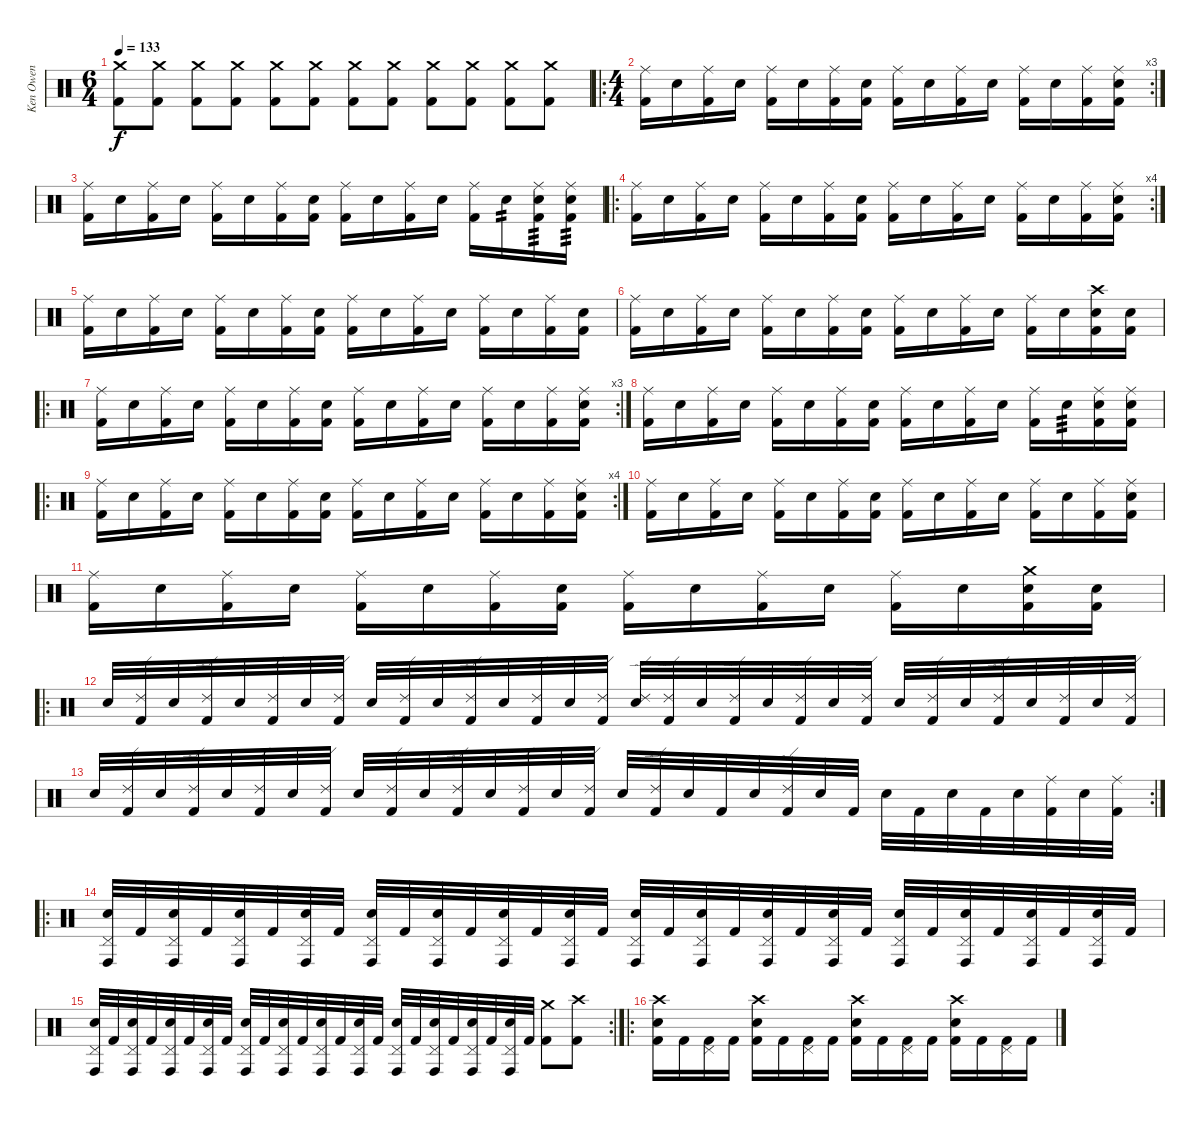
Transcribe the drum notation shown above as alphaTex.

\track ("Ken Owen" "Ken Owen") {instrument percussion}
\staff {score}
\articulation defaults
\ts (6 4)
\tempo 133
\clef neutral
\ks c
("Crash medium (hit)" "Kick (hit) 2").8{dy f} ("Crash medium (hit)" "Kick (hit) 2").8 ("Crash medium (hit)" "Kick (hit) 2").8 ("Crash medium (hit)" "Kick (hit) 2").8 ("Crash medium (hit)" "Kick (hit) 2").8 ("Crash medium (hit)" "Kick (hit) 2").8 ("Crash medium (hit)" "Kick (hit) 2").8 ("Crash medium (hit)" "Kick (hit) 2").8 ("Crash medium (hit)" "Kick (hit) 2").8 ("Crash medium (hit)" "Kick (hit) 2").8 ("Crash medium (hit)" "Kick (hit) 2").8 ("Crash medium (hit)" "Kick (hit) 2").8 |
\ro
\rc 3
\ts (4 4)
("Ride (middle)" "Kick (hit) 2").16 "Electric Snare (hit)".16 ("Ride (middle)" "Kick (hit) 2").16 "Electric Snare (hit)".16 ("Ride (middle)" "Kick (hit) 2").16 "Electric Snare (hit)".16 ("Ride (middle)" "Kick (hit) 2").16 ("Electric Snare (hit)" "Kick (hit) 2").16 ("Ride (middle)" "Kick (hit) 2").16 "Electric Snare (hit)".16 ("Ride (middle)" "Kick (hit) 2").16 "Electric Snare (hit)".16 ("Ride (middle)" "Kick (hit) 2").16 "Electric Snare (hit)".16 ("Ride (middle)" "Kick (hit) 2").16 ("Ride (middle)" "Electric Snare (hit)" "Kick (hit) 2").16 |
("Ride (middle)" "Kick (hit) 2").16 "Electric Snare (hit)".16 ("Ride (middle)" "Kick (hit) 2").16 "Electric Snare (hit)".16 ("Ride (middle)" "Kick (hit) 2").16 "Electric Snare (hit)".16 ("Ride (middle)" "Kick (hit) 2").16 ("Electric Snare (hit)" "Kick (hit) 2").16 ("Ride (middle)" "Kick (hit) 2").16 "Electric Snare (hit)".16 ("Ride (middle)" "Kick (hit) 2").16 "Electric Snare (hit)".16 ("Ride (middle)" "Kick (hit) 2").16 "Electric Snare (hit)".16{tp 2} ("Ride (middle)" "Electric Snare (hit)" "Kick (hit) 2").16{tp 3} ("Ride (middle)" "Electric Snare (hit)" "Kick (hit) 2").16{tp 3} |
\ro
\rc 4
("Ride (middle)" "Kick (hit) 2").16 "Electric Snare (hit)".16 ("Ride (middle)" "Kick (hit) 2").16 "Electric Snare (hit)".16 ("Ride (middle)" "Kick (hit) 2").16 "Electric Snare (hit)".16 ("Ride (middle)" "Kick (hit) 2").16 ("Electric Snare (hit)" "Kick (hit) 2").16 ("Ride (middle)" "Kick (hit) 2").16 "Electric Snare (hit)".16 ("Ride (middle)" "Kick (hit) 2").16 "Electric Snare (hit)".16 ("Ride (middle)" "Kick (hit) 2").16 "Electric Snare (hit)".16 ("Ride (middle)" "Kick (hit) 2").16 ("Ride (middle)" "Electric Snare (hit)" "Kick (hit) 2").16 |
("Ride (middle)" "Kick (hit) 2").16 "Electric Snare (hit)".16 ("Ride (middle)" "Kick (hit) 2").16 "Electric Snare (hit)".16 ("Ride (middle)" "Kick (hit) 2").16 "Electric Snare (hit)".16 ("Ride (middle)" "Kick (hit) 2").16 ("Electric Snare (hit)" "Kick (hit) 2").16 ("Ride (middle)" "Kick (hit) 2").16 "Electric Snare (hit)".16 ("Ride (middle)" "Kick (hit) 2").16 "Electric Snare (hit)".16 ("Ride (middle)" "Kick (hit) 2").16 "Electric Snare (hit)".16 ("Ride (middle)" "Kick (hit) 2").16 ("Electric Snare (hit)" "Kick (hit) 2").16 |
("Ride (middle)" "Kick (hit) 2").16 "Electric Snare (hit)".16 ("Ride (middle)" "Kick (hit) 2").16 "Electric Snare (hit)".16 ("Ride (middle)" "Kick (hit) 2").16 "Electric Snare (hit)".16 ("Ride (middle)" "Kick (hit) 2").16 ("Electric Snare (hit)" "Kick (hit) 2").16 ("Ride (middle)" "Kick (hit) 2").16 "Electric Snare (hit)".16 ("Ride (middle)" "Kick (hit) 2").16 "Electric Snare (hit)".16 ("Ride (middle)" "Kick (hit) 2").16 "Electric Snare (hit)".16 ("Crash high (hit)" "Electric Snare (hit)" "Kick (hit) 2").16 ("Electric Snare (hit)" "Kick (hit) 2").16 |
\ro
\rc 3
("Ride (middle)" "Kick (hit) 2").16 "Electric Snare (hit)".16 ("Ride (middle)" "Kick (hit) 2").16 "Electric Snare (hit)".16 ("Ride (middle)" "Kick (hit) 2").16 "Electric Snare (hit)".16 ("Ride (middle)" "Kick (hit) 2").16 ("Electric Snare (hit)" "Kick (hit) 2").16 ("Ride (middle)" "Kick (hit) 2").16 "Electric Snare (hit)".16 ("Ride (middle)" "Kick (hit) 2").16 "Electric Snare (hit)".16 ("Ride (middle)" "Kick (hit) 2").16 "Electric Snare (hit)".16 ("Ride (middle)" "Kick (hit) 2").16 ("Ride (middle)" "Electric Snare (hit)" "Kick (hit) 2").16 |
("Ride (middle)" "Kick (hit) 2").16 "Electric Snare (hit)".16 ("Ride (middle)" "Kick (hit) 2").16 "Electric Snare (hit)".16 ("Ride (middle)" "Kick (hit) 2").16 "Electric Snare (hit)".16 ("Ride (middle)" "Kick (hit) 2").16 ("Electric Snare (hit)" "Kick (hit) 2").16 ("Ride (middle)" "Kick (hit) 2").16 "Electric Snare (hit)".16 ("Ride (middle)" "Kick (hit) 2").16 "Electric Snare (hit)".16 ("Ride (middle)" "Kick (hit) 2").16 "Electric Snare (hit)".16{tp 3} ("Ride (middle)" "Electric Snare (hit)" "Kick (hit) 2").16 ("Ride (middle)" "Electric Snare (hit)" "Kick (hit) 2").16 |
\ro
\rc 4
("Ride (middle)" "Kick (hit) 2").16 "Electric Snare (hit)".16 ("Ride (middle)" "Kick (hit) 2").16 "Electric Snare (hit)".16 ("Ride (middle)" "Kick (hit) 2").16 "Electric Snare (hit)".16 ("Ride (middle)" "Kick (hit) 2").16 ("Electric Snare (hit)" "Kick (hit) 2").16 ("Ride (middle)" "Kick (hit) 2").16 "Electric Snare (hit)".16 ("Ride (middle)" "Kick (hit) 2").16 "Electric Snare (hit)".16 ("Ride (middle)" "Kick (hit) 2").16 "Electric Snare (hit)".16 ("Ride (middle)" "Kick (hit) 2").16 ("Ride (middle)" "Electric Snare (hit)" "Kick (hit) 2").16 |
("Ride (middle)" "Kick (hit) 2").16 "Electric Snare (hit)".16 ("Ride (middle)" "Kick (hit) 2").16 "Electric Snare (hit)".16 ("Ride (middle)" "Kick (hit) 2").16 "Electric Snare (hit)".16 ("Ride (middle)" "Kick (hit) 2").16 ("Electric Snare (hit)" "Kick (hit) 2").16 ("Ride (middle)" "Kick (hit) 2").16 "Electric Snare (hit)".16 ("Ride (middle)" "Kick (hit) 2").16 "Electric Snare (hit)".16 ("Ride (middle)" "Kick (hit) 2").16 "Electric Snare (hit)".16 ("Ride (middle)" "Kick (hit) 2").16 ("Ride (middle)" "Electric Snare (hit)" "Kick (hit) 2").16 |
("Ride (middle)" "Kick (hit) 2").16 "Electric Snare (hit)".16 ("Ride (middle)" "Kick (hit) 2").16 "Electric Snare (hit)".16 ("Ride (middle)" "Kick (hit) 2").16 "Electric Snare (hit)".16 ("Ride (middle)" "Kick (hit) 2").16 ("Electric Snare (hit)" "Kick (hit) 2").16 ("Ride (middle)" "Kick (hit) 2").16 "Electric Snare (hit)".16 ("Ride (middle)" "Kick (hit) 2").16 "Electric Snare (hit)".16 ("Ride (middle)" "Kick (hit) 2").16 "Electric Snare (hit)".16 ("Crash medium (hit)" "Electric Snare (hit)" "Kick (hit) 2").16 ("Electric Snare (hit)" "Kick (hit) 2").16 |
\ro "Electric Snare (hit)".32
("Ride (edge) 2" "Kick (hit) 2").32 "Electric Snare (hit)".32 ("Ride (edge) 2" "Kick (hit) 2").32 "Electric Snare (hit)".32 ("Ride (edge) 2" "Kick (hit) 2").32 "Electric Snare (hit)".32 ("Ride (edge) 2" "Kick (hit) 2").32 "Electric Snare (hit)".32 ("Ride (edge) 2" "Kick (hit) 2").32 "Electric Snare (hit)".32 ("Ride (edge) 2" "Kick (hit) 2").32 "Electric Snare (hit)".32 ("Ride (edge) 2" "Kick (hit) 2").32 "Electric Snare (hit)".32 ("Ride (edge) 2" "Kick (hit) 2").32 ("Ride (edge) 2" "Electric Snare (hit)").32 ("Ride (edge) 2" "Kick (hit) 2").32 "Electric Snare (hit)".32 ("Ride (edge) 2" "Kick (hit) 2").32 "Electric Snare (hit)".32 ("Ride (edge) 2" "Kick (hit) 2").32 "Electric Snare (hit)".32 ("Ride (edge) 2" "Kick (hit) 2").32 "Electric Snare (hit)".32 ("Ride (edge) 2" "Kick (hit) 2").32 "Electric Snare (hit)".32 ("Ride (edge) 2" "Kick (hit) 2").32 "Electric Snare (hit)".32 ("Ride (edge) 2" "Kick (hit) 2").32 "Electric Snare (hit)".32 ("Ride (edge) 2" "Kick (hit) 2").32 |
\rc 2 "Electric Snare (hit)".32
("Ride (edge) 2" "Kick (hit) 2").32 "Electric Snare (hit)".32 ("Ride (edge) 2" "Kick (hit) 2").32 "Electric Snare (hit)".32 ("Ride (edge) 2" "Kick (hit) 2").32 "Electric Snare (hit)".32 ("Ride (edge) 2" "Kick (hit) 2").32 "Electric Snare (hit)".32 ("Ride (edge) 2" "Kick (hit) 2").32 "Electric Snare (hit)".32 ("Ride (edge) 2" "Kick (hit) 2").32 "Electric Snare (hit)".32 ("Ride (edge) 2" "Kick (hit) 2").32 "Electric Snare (hit)".32 ("Ride (edge) 2" "Kick (hit) 2").32 "Electric Snare (hit)".32 ("Ride (edge) 2" "Kick (hit) 2").32 "Electric Snare (hit)".32 "Kick (hit) 2".32 "Electric Snare (hit)".32 ("Ride (edge) 2" "Kick (hit) 2").32 "Electric Snare (hit)".32 "Kick (hit) 2".32 "Electric Snare (hit)".32 "Kick (hit) 2".32 "Electric Snare (hit)".32 "Kick (hit) 2".32 "Electric Snare (hit)".32 ("Ride (middle)" "Kick (hit) 2").32 "Electric Snare (hit)".32 ("Ride (middle)" "Kick (hit) 2").32 |
\ro
("Pedal Hi-Hat (hit)" "Electric Snare (hit)" "Conga high (hit)").32 "Kick (hit) 2".32 ("Pedal Hi-Hat (hit)" "Electric Snare (hit)" "Conga high (hit)").32 "Kick (hit) 2".32 ("Pedal Hi-Hat (hit)" "Electric Snare (hit)" "Conga high (hit)").32 "Kick (hit) 2".32 ("Pedal Hi-Hat (hit)" "Electric Snare (hit)" "Conga high (hit)").32 "Kick (hit) 2".32 ("Pedal Hi-Hat (hit)" "Electric Snare (hit)" "Conga high (hit)").32 "Kick (hit) 2".32 ("Pedal Hi-Hat (hit)" "Electric Snare (hit)" "Conga high (hit)").32 "Kick (hit) 2".32 ("Pedal Hi-Hat (hit)" "Electric Snare (hit)" "Conga high (hit)").32 "Kick (hit) 2".32 ("Pedal Hi-Hat (hit)" "Electric Snare (hit)" "Conga high (hit)").32 "Kick (hit) 2".32 ("Pedal Hi-Hat (hit)" "Electric Snare (hit)" "Conga high (hit)").32 "Kick (hit) 2".32 ("Pedal Hi-Hat (hit)" "Electric Snare (hit)" "Conga high (hit)").32 "Kick (hit) 2".32 ("Pedal Hi-Hat (hit)" "Electric Snare (hit)" "Conga high (hit)").32 "Kick (hit) 2".32 ("Pedal Hi-Hat (hit)" "Electric Snare (hit)" "Conga high (hit)").32 "Kick (hit) 2".32 ("Pedal Hi-Hat (hit)" "Electric Snare (hit)" "Conga high (hit)").32 "Kick (hit) 2".32 ("Pedal Hi-Hat (hit)" "Electric Snare (hit)" "Conga high (hit)").32 "Kick (hit) 2".32 ("Pedal Hi-Hat (hit)" "Electric Snare (hit)" "Conga high (hit)").32 "Kick (hit) 2".32 ("Pedal Hi-Hat (hit)" "Electric Snare (hit)" "Conga high (hit)").32 "Kick (hit) 2".32 |
\rc 2
("Pedal Hi-Hat (hit)" "Electric Snare (hit)" "Conga high (hit)").32 "Kick (hit) 2".32 ("Pedal Hi-Hat (hit)" "Electric Snare (hit)" "Conga high (hit)").32 "Kick (hit) 2".32 ("Pedal Hi-Hat (hit)" "Electric Snare (hit)" "Conga high (hit)").32 "Kick (hit) 2".32 ("Pedal Hi-Hat (hit)" "Electric Snare (hit)" "Conga high (hit)").32 "Kick (hit) 2".32 ("Pedal Hi-Hat (hit)" "Electric Snare (hit)" "Conga high (hit)").32 "Kick (hit) 2".32 ("Pedal Hi-Hat (hit)" "Electric Snare (hit)" "Conga high (hit)").32 "Kick (hit) 2".32 ("Pedal Hi-Hat (hit)" "Electric Snare (hit)" "Conga high (hit)").32 "Kick (hit) 2".32 ("Pedal Hi-Hat (hit)" "Electric Snare (hit)" "Conga high (hit)").32 "Kick (hit) 2".32 ("Pedal Hi-Hat (hit)" "Electric Snare (hit)" "Conga high (hit)").32 "Kick (hit) 2".32 ("Pedal Hi-Hat (hit)" "Electric Snare (hit)" "Conga high (hit)").32 "Kick (hit) 2".32 ("Pedal Hi-Hat (hit)" "Electric Snare (hit)" "Conga high (hit)").32 "Kick (hit) 2".32 ("Pedal Hi-Hat (hit)" "Electric Snare (hit)" "Conga high (hit)").32 "Kick (hit) 2".32 ("Crash medium (hit)" "Kick (hit) 2").8 ("Crash high (hit)" "Kick (hit) 2").8 |
\ro
("Crash high (hit)" "Electric Snare (hit)" "Kick (hit) 2").16 "Kick (hit) 2".16 ("Pedal Hi-Hat (hit)" "Kick (hit) 2").16 "Kick (hit) 2".16 ("Crash high (hit)" "Electric Snare (hit)" "Kick (hit) 2").16 "Kick (hit) 2".16 ("Pedal Hi-Hat (hit)" "Kick (hit) 2").16 "Kick (hit) 2".16 ("Crash high (hit)" "Electric Snare (hit)" "Kick (hit) 2").16 "Kick (hit) 2".16 ("Pedal Hi-Hat (hit)" "Kick (hit) 2").16 "Kick (hit) 2".16 ("Crash high (hit)" "Electric Snare (hit)" "Kick (hit) 2").16 "Kick (hit) 2".16 ("Pedal Hi-Hat (hit)" "Kick (hit) 2").16 "Kick (hit) 2".16
